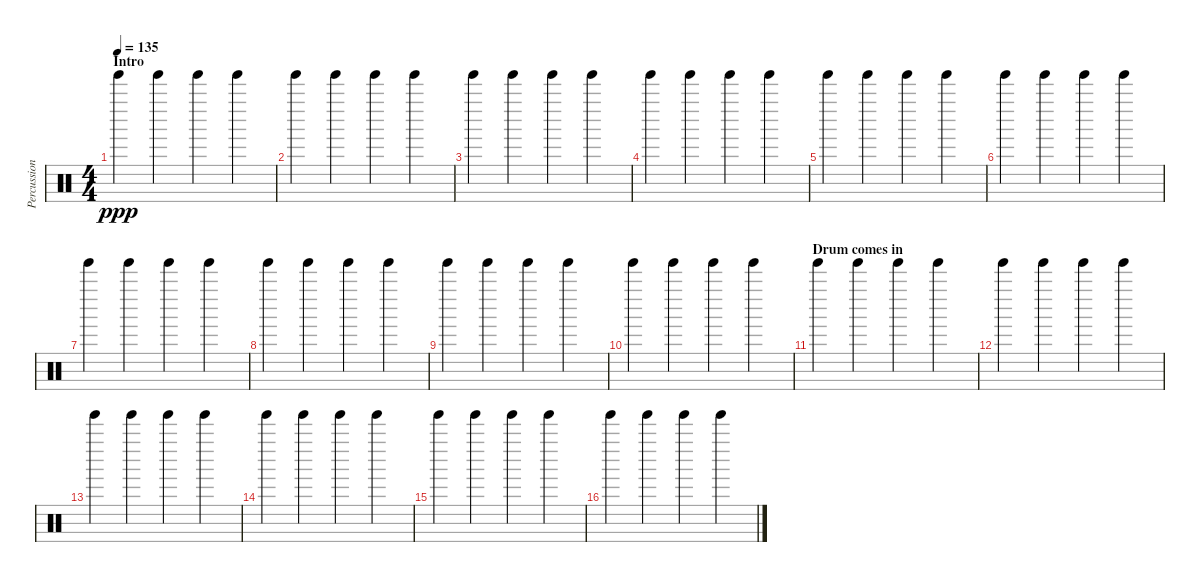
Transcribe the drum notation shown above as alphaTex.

\track ("Percussion" "Percussion") {instrument percussion}
\staff {score}
\articulation defaults
\ts (4 4)
\section ("" "Intro")
\tempo 135
\clef neutral
\ks c "Tinkle Bell (hit)".4{dy ppp} "Tinkle Bell (hit)".4 "Tinkle Bell (hit)".4 "Tinkle Bell (hit)".4
|
"Tinkle Bell (hit)".4 "Tinkle Bell (hit)".4 "Tinkle Bell (hit)".4 "Tinkle Bell (hit)".4 |
"Tinkle Bell (hit)".4 "Tinkle Bell (hit)".4 "Tinkle Bell (hit)".4 "Tinkle Bell (hit)".4 |
"Tinkle Bell (hit)".4 "Tinkle Bell (hit)".4 "Tinkle Bell (hit)".4 "Tinkle Bell (hit)".4 |
"Tinkle Bell (hit)".4 "Tinkle Bell (hit)".4 "Tinkle Bell (hit)".4 "Tinkle Bell (hit)".4 |
"Tinkle Bell (hit)".4 "Tinkle Bell (hit)".4 "Tinkle Bell (hit)".4 "Tinkle Bell (hit)".4 |
"Tinkle Bell (hit)".4 "Tinkle Bell (hit)".4 "Tinkle Bell (hit)".4 "Tinkle Bell (hit)".4 |
"Tinkle Bell (hit)".4 "Tinkle Bell (hit)".4 "Tinkle Bell (hit)".4 "Tinkle Bell (hit)".4 |
"Tinkle Bell (hit)".4 "Tinkle Bell (hit)".4 "Tinkle Bell (hit)".4 "Tinkle Bell (hit)".4 |
"Tinkle Bell (hit)".4 "Tinkle Bell (hit)".4 "Tinkle Bell (hit)".4 "Tinkle Bell (hit)".4 |
\section ("" "Drum comes in")
"Tinkle Bell (hit)".4 "Tinkle Bell (hit)".4 "Tinkle Bell (hit)".4 "Tinkle Bell (hit)".4 |
"Tinkle Bell (hit)".4 "Tinkle Bell (hit)".4 "Tinkle Bell (hit)".4 "Tinkle Bell (hit)".4 |
"Tinkle Bell (hit)".4 "Tinkle Bell (hit)".4 "Tinkle Bell (hit)".4 "Tinkle Bell (hit)".4 |
"Tinkle Bell (hit)".4 "Tinkle Bell (hit)".4 "Tinkle Bell (hit)".4 "Tinkle Bell (hit)".4 |
"Tinkle Bell (hit)".4 "Tinkle Bell (hit)".4 "Tinkle Bell (hit)".4 "Tinkle Bell (hit)".4 |
"Tinkle Bell (hit)".4 "Tinkle Bell (hit)".4 "Tinkle Bell (hit)".4 "Tinkle Bell (hit)".4
